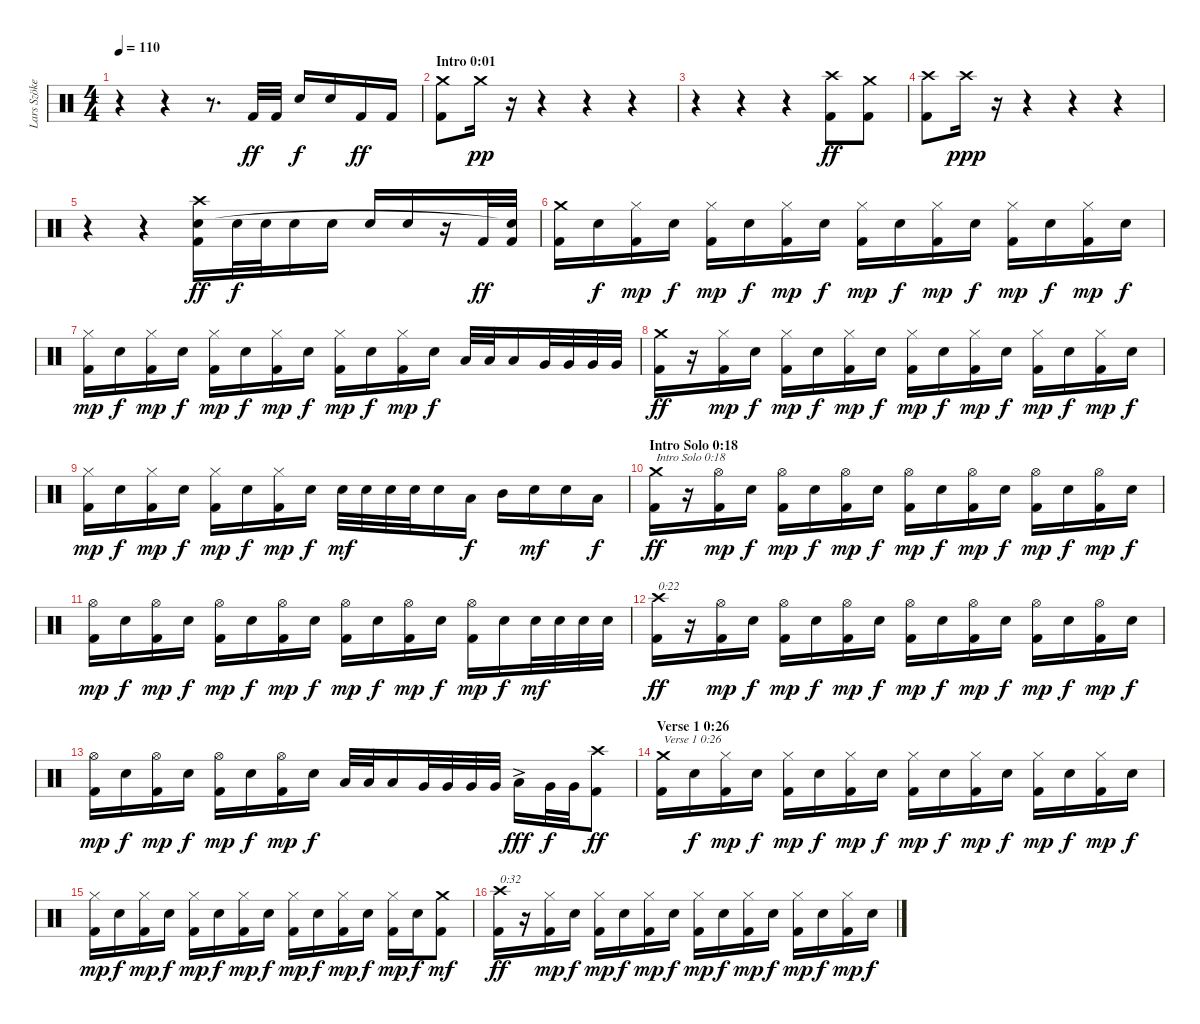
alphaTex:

\track ("Lars Szöke (Drums)" "Lars Szöke") {instrument percussion}
\staff {score}
\articulation defaults
\ts (4 4)
\tempo 110
\clef neutral
\ks c
r.4{dy ff} r.4 r.8{d} "Kick (hit) 2".32 "Kick (hit) 2".32 "Electric Snare (hit)".16{dy f} "Electric Snare (hit)".16 "Kick (hit) 2".16{dy ff} "Kick (hit) 2".16 |
\section ("" "Intro 0:01")
("Kick (hit) 2" "Crash medium (hit)").8 "Crash medium (hit)".16{dy pp} r.16 r.4 r.4 r.4 |
r.4 r.4 r.4 ("Kick (hit) 2" "Crash high (hit)").8{dy ff} ("Kick (hit) 2" "Crash medium (hit)").8 |
("Kick (hit) 2" "Crash high (hit)").8 "Crash high (hit)".16{dy ppp} r.16 r.4 r.4 r.4 |
r.4 r.4 ("Kick (hit) 2" "Electric Snare (hit)" "Crash high (hit)").16{dy ff} "Electric Snare (hit)".32{dy f} "Electric Snare (hit)".32 "Electric Snare (hit)".16 "Electric Snare (hit)".16 "Electric Snare (hit)".16 "Electric Snare (hit)".16 r.16 "Kick (hit) 2".32{dy ff} ("Kick (hit) 2" "Snare (hit)"{t}).32 |
("Kick (hit) 2" "Crash medium (hit)").16 "Electric Snare (hit)".16{dy f} ("Kick (hit) 2" "Hi-Hat (closed)").16{dy mp} "Electric Snare (hit)".16{dy f} ("Kick (hit) 2" "Hi-Hat (closed)").16{dy mp} "Electric Snare (hit)".16{dy f} ("Kick (hit) 2" "Hi-Hat (closed)").16{dy mp} "Electric Snare (hit)".16{dy f} ("Kick (hit) 2" "Hi-Hat (closed)").16{dy mp} "Electric Snare (hit)".16{dy f} ("Kick (hit) 2" "Hi-Hat (closed)").16{dy mp} "Electric Snare (hit)".16{dy f} ("Kick (hit) 2" "Hi-Hat (closed)").16{dy mp} "Electric Snare (hit)".16{dy f} ("Kick (hit) 2" "Hi-Hat (closed)").16{dy mp} "Electric Snare (hit)".16{dy f} |
("Kick (hit) 2" "Hi-Hat (closed)").16{dy mp} "Electric Snare (hit)".16{dy f} ("Kick (hit) 2" "Hi-Hat (closed)").16{dy mp} "Electric Snare (hit)".16{dy f} ("Kick (hit) 2" "Hi-Hat (closed)").16{dy mp} "Electric Snare (hit)".16{dy f} ("Kick (hit) 2" "Hi-Hat (closed)").16{dy mp} "Electric Snare (hit)".16{dy f} ("Kick (hit) 2" "Hi-Hat (closed)").16{dy mp} "Electric Snare (hit)".16{dy f} ("Kick (hit) 2" "Hi-Hat (closed)").16{dy mp} "Electric Snare (hit)".16{dy f} "Low Tom (hit)".32 "Low Tom (hit)".32 "Low Tom (hit)".16 "Very Low Tom (hit)".32 "Very Low Tom (hit)".32 "Very Low Tom (hit)".32 "Very Low Tom (hit)".32 |
("Kick (hit) 2" "Crash medium (hit)").16{dy ff} r.16 ("Kick (hit) 2" "Hi-Hat (closed)").16{dy mp} "Electric Snare (hit)".16{dy f} ("Kick (hit) 2" "Hi-Hat (closed)").16{dy mp} "Electric Snare (hit)".16{dy f} ("Kick (hit) 2" "Hi-Hat (closed)").16{dy mp} "Electric Snare (hit)".16{dy f} ("Kick (hit) 2" "Hi-Hat (closed)").16{dy mp} "Electric Snare (hit)".16{dy f} ("Kick (hit) 2" "Hi-Hat (closed)").16{dy mp} "Electric Snare (hit)".16{dy f} ("Kick (hit) 2" "Hi-Hat (closed)").16{dy mp} "Electric Snare (hit)".16{dy f} ("Kick (hit) 2" "Hi-Hat (closed)").16{dy mp} "Electric Snare (hit)".16{dy f} |
("Kick (hit) 2" "Hi-Hat (closed)").16{dy mp} "Electric Snare (hit)".16{dy f} ("Kick (hit) 2" "Hi-Hat (closed)").16{dy mp} "Electric Snare (hit)".16{dy f} ("Kick (hit) 2" "Hi-Hat (closed)").16{dy mp} "Electric Snare (hit)".16{dy f} ("Kick (hit) 2" "Hi-Hat (closed)").16{dy mp} "Electric Snare (hit)".16{dy f} "Electric Snare (hit)".32{dy mf} "Electric Snare (hit)".32 "Electric Snare (hit)".32 "Electric Snare (hit)".32 "Electric Snare (hit)".16 "Low Tom (hit)".16{dy f} "Mid Tom (hit)".16 "Electric Snare (hit)".16{dy mf} "Electric Snare (hit)".16 "Low Tom (hit)".16{dy f} |
\section ("" "Intro Solo 0:18")
("Kick (hit) 2" "Crash medium (hit)").16{txt "Intro Solo 0:18" dy ff} r.16 ("Kick (hit) 2" "Hi-Hat (open)").16{dy mp} "Electric Snare (hit)".16{dy f} ("Kick (hit) 2" "Hi-Hat (open)").16{dy mp} "Electric Snare (hit)".16{dy f} ("Kick (hit) 2" "Hi-Hat (open)").16{dy mp} "Electric Snare (hit)".16{dy f} ("Kick (hit) 2" "Hi-Hat (open)").16{dy mp} "Electric Snare (hit)".16{dy f} ("Kick (hit) 2" "Hi-Hat (open)").16{dy mp} "Electric Snare (hit)".16{dy f} ("Kick (hit) 2" "Hi-Hat (open)").16{dy mp} "Electric Snare (hit)".16{dy f} ("Kick (hit) 2" "Hi-Hat (open)").16{dy mp} "Electric Snare (hit)".16{dy f} |
("Kick (hit) 2" "Hi-Hat (open)").16{dy mp} "Electric Snare (hit)".16{dy f} ("Kick (hit) 2" "Hi-Hat (open)").16{dy mp} "Electric Snare (hit)".16{dy f} ("Kick (hit) 2" "Hi-Hat (open)").16{dy mp} "Electric Snare (hit)".16{dy f} ("Kick (hit) 2" "Hi-Hat (open)").16{dy mp} "Electric Snare (hit)".16{dy f} ("Kick (hit) 2" "Hi-Hat (open)").16{dy mp} "Electric Snare (hit)".16{dy f} ("Kick (hit) 2" "Hi-Hat (open)").16{dy mp} "Electric Snare (hit)".16{dy f} ("Kick (hit) 2" "Hi-Hat (open)").16{dy mp} "Electric Snare (hit)".16{dy f} "Electric Snare (hit)".32{dy mf} "Electric Snare (hit)".32 "Electric Snare (hit)".32 "Electric Snare (hit)".32 |
("Kick (hit) 2" "Crash high (hit)").16{txt "0:22" dy ff} r.16 ("Kick (hit) 2" "Hi-Hat (open)").16{dy mp} "Electric Snare (hit)".16{dy f} ("Kick (hit) 2" "Hi-Hat (open)").16{dy mp} "Electric Snare (hit)".16{dy f} ("Kick (hit) 2" "Hi-Hat (open)").16{dy mp} "Electric Snare (hit)".16{dy f} ("Kick (hit) 2" "Hi-Hat (open)").16{dy mp} "Electric Snare (hit)".16{dy f} ("Kick (hit) 2" "Hi-Hat (open)").16{dy mp} "Electric Snare (hit)".16{dy f} ("Kick (hit) 2" "Hi-Hat (open)").16{dy mp} "Electric Snare (hit)".16{dy f} ("Kick (hit) 2" "Hi-Hat (open)").16{dy mp} "Electric Snare (hit)".16{dy f} |
("Kick (hit) 2" "Hi-Hat (open)").16{dy mp} "Electric Snare (hit)".16{dy f} ("Kick (hit) 2" "Hi-Hat (open)").16{dy mp} "Electric Snare (hit)".16{dy f} ("Kick (hit) 2" "Hi-Hat (open)").16{dy mp} "Electric Snare (hit)".16{dy f} ("Kick (hit) 2" "Hi-Hat (open)").16{dy mp} "Electric Snare (hit)".16{dy f} "Low Tom (hit)".32 "Low Tom (hit)".32 "Low Tom (hit)".16 "Very Low Tom (hit)".32 "Very Low Tom (hit)".32 "Very Low Tom (hit)".32 "Very Low Tom (hit)".32 "Low Floor Tom (hit)"{ac}.16{dy fff} "Very Low Tom (hit)".32{dy f} "Very Low Tom (hit)".32 ("Kick (hit) 2" "Crash high (hit)").8{dy ff} |
\section ("" "Verse 1 0:26")
("Kick (hit) 2" "Crash medium (hit)").16{txt "Verse 1 0:26"} "Electric Snare (hit)".16{dy f} ("Kick (hit) 2" "Hi-Hat (closed)").16{dy mp} "Electric Snare (hit)".16{dy f} ("Kick (hit) 2" "Hi-Hat (closed)").16{dy mp} "Electric Snare (hit)".16{dy f} ("Kick (hit) 2" "Hi-Hat (closed)").16{dy mp} "Electric Snare (hit)".16{dy f} ("Kick (hit) 2" "Hi-Hat (closed)").16{dy mp} "Electric Snare (hit)".16{dy f} ("Kick (hit) 2" "Hi-Hat (closed)").16{dy mp} "Electric Snare (hit)".16{dy f} ("Kick (hit) 2" "Hi-Hat (closed)").16{dy mp} "Electric Snare (hit)".16{dy f} ("Kick (hit) 2" "Hi-Hat (closed)").16{dy mp} "Electric Snare (hit)".16{dy f} |
("Kick (hit) 2" "Hi-Hat (closed)").16{dy mp} "Electric Snare (hit)".16{dy f} ("Kick (hit) 2" "Hi-Hat (closed)").16{dy mp} "Electric Snare (hit)".16{dy f} ("Kick (hit) 2" "Hi-Hat (closed)").16{dy mp} "Electric Snare (hit)".16{dy f} ("Kick (hit) 2" "Hi-Hat (closed)").16{dy mp} "Electric Snare (hit)".16{dy f} ("Kick (hit) 2" "Hi-Hat (closed)").16{dy mp} "Electric Snare (hit)".16{dy f} ("Kick (hit) 2" "Hi-Hat (closed)").16{dy mp} "Electric Snare (hit)".16{dy f} ("Kick (hit) 2" "Hi-Hat (closed)").16{dy mp} "Electric Snare (hit)".16{dy f} ("Kick (hit) 2" "Crash medium (hit)").8{dy mf} |
("Kick (hit) 2" "Crash high (hit)").16{txt "0:32" dy ff} r.16 ("Kick (hit) 2" "Hi-Hat (closed)").16{dy mp} "Electric Snare (hit)".16{dy f} ("Kick (hit) 2" "Hi-Hat (closed)").16{dy mp} "Electric Snare (hit)".16{dy f} ("Kick (hit) 2" "Hi-Hat (closed)").16{dy mp} "Electric Snare (hit)".16{dy f} ("Kick (hit) 2" "Hi-Hat (closed)").16{dy mp} "Electric Snare (hit)".16{dy f} ("Kick (hit) 2" "Hi-Hat (closed)").16{dy mp} "Electric Snare (hit)".16{dy f} ("Kick (hit) 2" "Hi-Hat (closed)").16{dy mp} "Electric Snare (hit)".16{dy f} ("Kick (hit) 2" "Hi-Hat (closed)").16{dy mp} "Electric Snare (hit)".16{dy f}
